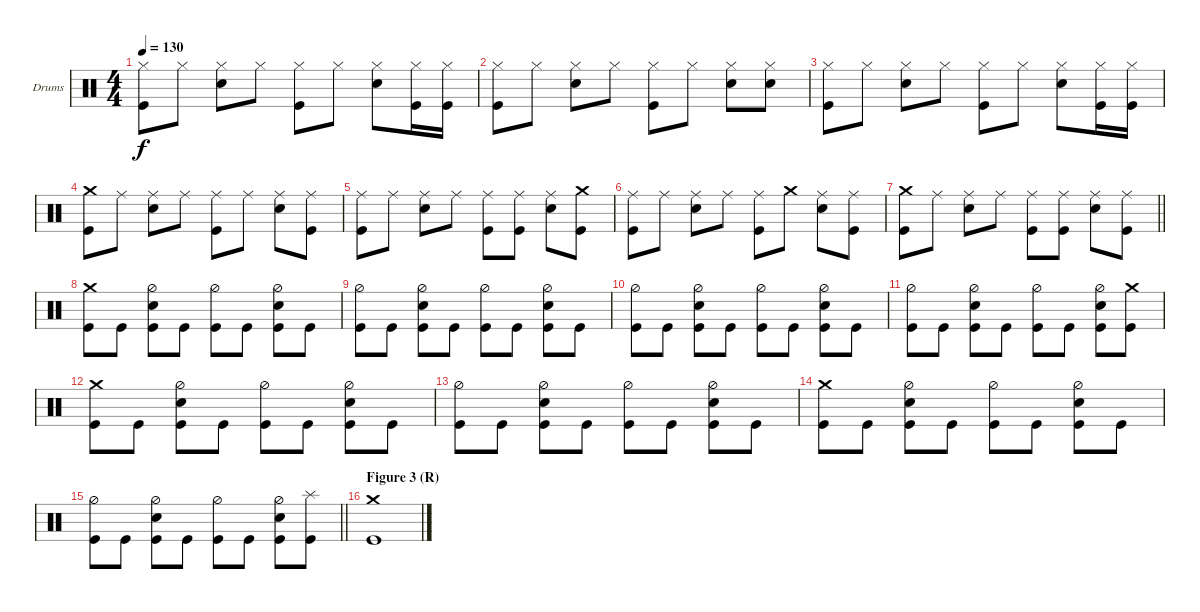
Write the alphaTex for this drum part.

\defaultSystemsLayout 4
\bracketExtendMode groupsimilarinstruments
\firstSystemTrackNameOrientation horizontal
\otherSystemsTrackNameOrientation horizontal
\track ("Drums" "Drums") {instrument percussion}
\staff {score}
\articulation defaults
\ts (4 4)
\tempo 130
\clef neutral
\ks aminor
("Kick (hit)" "Hi-Hat (closed)").8{dy f} "Hi-Hat (closed)".8 ("Snare (hit) 2" "Hi-Hat (closed)").8 "Hi-Hat (closed)".8 ("Kick (hit)" "Hi-Hat (closed)").8 "Hi-Hat (closed)".8 ("Snare (hit) 2" "Hi-Hat (closed)").8 ("Kick (hit)" "Hi-Hat (closed)").16 ("Kick (hit)" "Hi-Hat (closed)").16 |
("Kick (hit)" "Hi-Hat (closed)").8 "Hi-Hat (closed)".8 ("Snare (hit) 2" "Hi-Hat (closed)").8 "Hi-Hat (closed)".8 ("Kick (hit)" "Hi-Hat (closed)").8 "Hi-Hat (closed)".8 ("Snare (hit) 2" "Hi-Hat (closed)").8 ("Snare (hit) 2" "Hi-Hat (closed)").8 |
("Kick (hit)" "Hi-Hat (closed)").8 "Hi-Hat (closed)".8 ("Snare (hit) 2" "Hi-Hat (closed)").8 "Hi-Hat (closed)".8 ("Kick (hit)" "Hi-Hat (closed)").8 "Hi-Hat (closed)".8 ("Snare (hit) 2" "Hi-Hat (closed)").8 ("Kick (hit)" "Hi-Hat (closed)").16 ("Kick (hit)" "Hi-Hat (closed)").16 |
("Kick (hit)" "Crash medium (hit)").8 "Ride (middle)".8 ("Snare (hit) 2" "Ride (middle)").8 "Ride (middle)".8 ("Kick (hit)" "Ride (middle)").8 "Ride (middle)".8 ("Snare (hit) 2" "Ride (middle)").8 ("Kick (hit)" "Ride (middle)").8 |
("Kick (hit)" "Ride (middle)").8 "Ride (middle)".8 ("Snare (hit) 2" "Ride (middle)").8 "Ride (middle)".8 ("Kick (hit)" "Ride (middle)").8 ("Kick (hit)" "Ride (middle)").8 ("Snare (hit) 2" "Ride (middle)").8 ("Kick (hit)" "Crash medium (hit)").8 |
("Kick (hit)" "Ride (middle)").8 "Ride (middle)".8 ("Snare (hit) 2" "Ride (middle)").8 "Ride (middle)".8 ("Kick (hit)" "Ride (middle)").8 "Crash medium (hit)".8 ("Snare (hit) 2" "Ride (middle)").8 ("Kick (hit)" "Ride (middle)").8 |
\barLineRight lightlight
("Kick (hit)" "Crash medium (hit)").8 "Ride (middle)".8 ("Snare (hit) 2" "Ride (middle)").8 "Ride (middle)".8 ("Kick (hit)" "Ride (middle)").8 ("Kick (hit)" "Ride (middle)").8 ("Snare (hit) 2" "Ride (middle)").8 ("Kick (hit)" "Ride (middle)").8 |
("Kick (hit)" "Crash medium (hit)").8 "Kick (hit)".8 ("Snare (hit) 2" "Hi-Hat (half)" "Kick (hit)").8 "Kick (hit)".8 ("Hi-Hat (half)" "Kick (hit)").8 "Kick (hit)".8 ("Snare (hit) 2" "Hi-Hat (half)" "Kick (hit)").8 "Kick (hit)".8 |
("Kick (hit)" "Hi-Hat (half)").8 "Kick (hit)".8 ("Snare (hit) 2" "Hi-Hat (half)" "Kick (hit)").8 "Kick (hit)".8 ("Kick (hit)" "Hi-Hat (half)").8 "Kick (hit)".8 ("Snare (hit) 2" "Hi-Hat (half)" "Kick (hit)").8 "Kick (hit)".8 |
("Kick (hit)" "Hi-Hat (half)").8 "Kick (hit)".8 ("Snare (hit) 2" "Hi-Hat (half)" "Kick (hit)").8 "Kick (hit)".8 ("Hi-Hat (half)" "Kick (hit)").8 "Kick (hit)".8 ("Snare (hit) 2" "Hi-Hat (half)" "Kick (hit)").8 "Kick (hit)".8 |
("Kick (hit)" "Hi-Hat (half)").8 "Kick (hit)".8 ("Snare (hit) 2" "Hi-Hat (half)" "Kick (hit)").8 "Kick (hit)".8 ("Kick (hit)" "Hi-Hat (half)").8 "Kick (hit)".8 ("Snare (hit) 2" "Hi-Hat (half)" "Kick (hit)").8 ("Kick (hit)" "Crash medium (hit)").8 |
("Kick (hit)" "Crash medium (hit)").8 "Kick (hit)".8 ("Snare (hit) 2" "Hi-Hat (half)" "Kick (hit)").8 "Kick (hit)".8 ("Hi-Hat (half)" "Kick (hit)").8 "Kick (hit)".8 ("Snare (hit) 2" "Hi-Hat (half)" "Kick (hit)").8 "Kick (hit)".8 |
("Kick (hit)" "Hi-Hat (half)").8 "Kick (hit)".8 ("Snare (hit) 2" "Hi-Hat (half)" "Kick (hit)").8 "Kick (hit)".8 ("Kick (hit)" "Hi-Hat (half)").8 "Kick (hit)".8 ("Snare (hit) 2" "Hi-Hat (half)" "Kick (hit)").8 "Kick (hit)".8 |
("Kick (hit)" "Crash medium (hit)").8 "Kick (hit)".8 ("Snare (hit) 2" "Hi-Hat (half)" "Kick (hit)").8 "Kick (hit)".8 ("Hi-Hat (half)" "Kick (hit)").8 "Kick (hit)".8 ("Snare (hit) 2" "Hi-Hat (half)" "Kick (hit)").8 "Kick (hit)".8 |
\barLineRight lightlight
("Kick (hit)" "Hi-Hat (half)").8 "Kick (hit)".8 ("Snare (hit) 2" "Hi-Hat (half)" "Kick (hit)").8 "Kick (hit)".8 ("Kick (hit)" "Hi-Hat (half)").8 "Kick (hit)".8 ("Snare (hit) 2" "Hi-Hat (half)" "Kick (hit)").8 ("Kick (hit)" "Splash (hit)").8 |
\section ("" "Figure 3 (R)")
("Kick (hit)" "Crash medium (hit)").1
